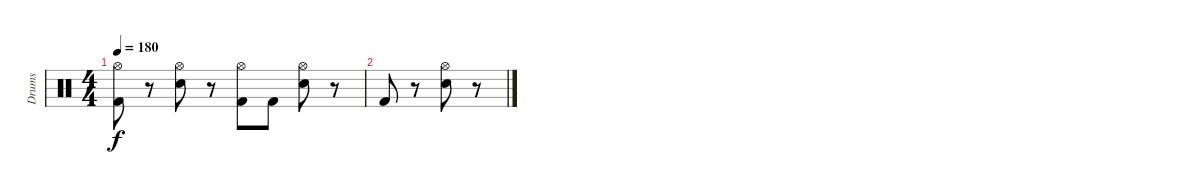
\track ("Drums" "Drums") {instrument percussion}
\staff {score}
\articulation defaults
\ts (4 4)
\tempo 180
\clef neutral
\ks c
("Hi-Hat (open)" "Kick (hit) 2").8{dy f} r.8 ("Hi-Hat (open)" "Electric Snare (hit)").8 r.8 ("Hi-Hat (open)" "Kick (hit) 2").8 "Kick (hit) 2".8 ("Hi-Hat (open)" "Electric Snare (hit)").8 r.8 |
"Kick (hit) 2".8 r.8 ("Hi-Hat (open)" "Electric Snare (hit)").8 r.8
